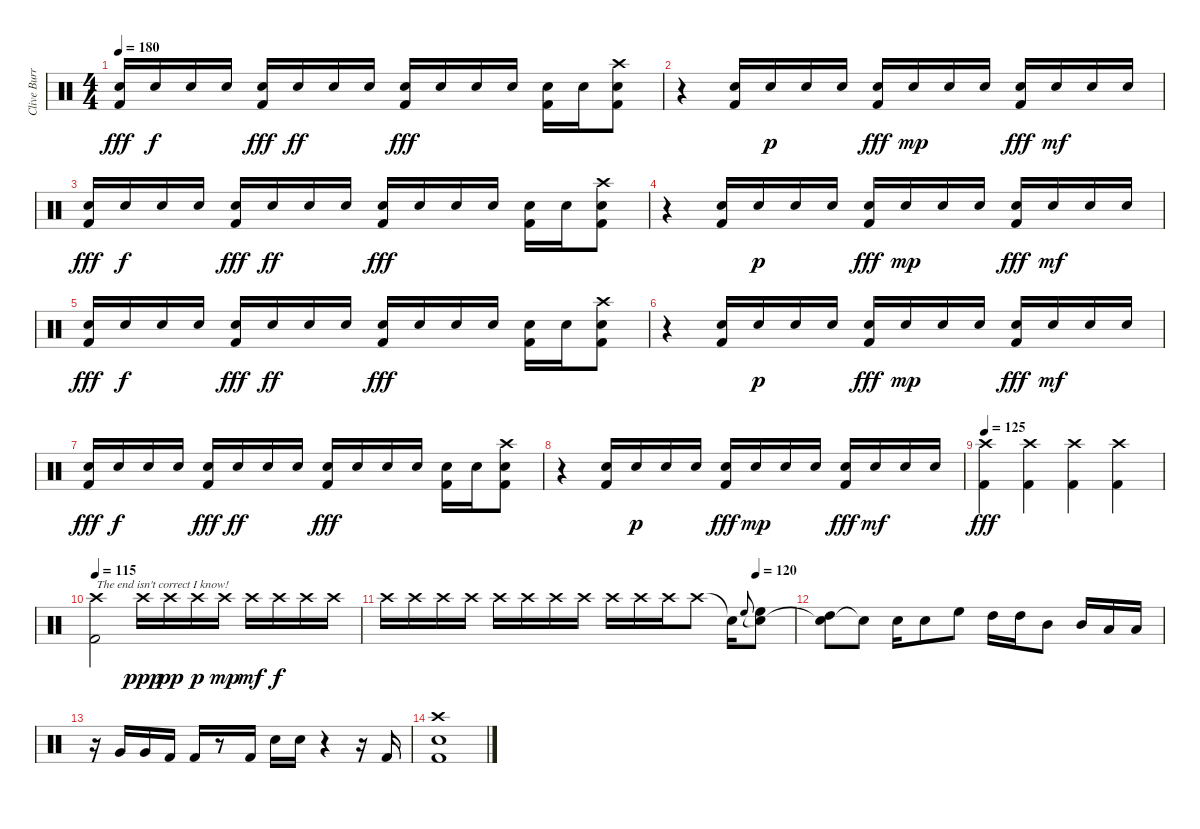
\track ("Clive Burr - Drums" "Clive Burr") {instrument percussion}
\staff {score}
\articulation defaults
\ts (4 4)
\tempo 180
\clef neutral
\ks c
("Snare (hit) 2" "Kick (hit) 2").16{dy fff} "Snare (hit) 2".16{dy f} "Snare (hit) 2".16 "Snare (hit) 2".16 ("Snare (hit) 2" "Kick (hit) 2").16{dy fff} "Snare (hit) 2".16{dy ff} "Snare (hit) 2".16 "Snare (hit) 2".16 ("Snare (hit) 2" "Kick (hit) 2").16{dy fff} "Snare (hit) 2".16 "Snare (hit) 2".16 "Snare (hit) 2".16 ("Snare (hit) 2" "Kick (hit) 2").16 "Snare (hit) 2".16 ("Crash high (hit)" "Snare (hit) 2" "Kick (hit) 2").8 |
r.4 ("Snare (hit) 2" "Kick (hit) 2").16 "Snare (hit) 2".16{dy p} "Snare (hit) 2".16 "Snare (hit) 2".16 ("Snare (hit) 2" "Kick (hit) 2").16{dy fff} "Snare (hit) 2".16{dy mp} "Snare (hit) 2".16 "Snare (hit) 2".16 ("Snare (hit) 2" "Kick (hit) 2").16{dy fff} "Snare (hit) 2".16{dy mf} "Snare (hit) 2".16 "Snare (hit) 2".16 |
("Snare (hit) 2" "Kick (hit) 2").16{dy fff} "Snare (hit) 2".16{dy f} "Snare (hit) 2".16 "Snare (hit) 2".16 ("Snare (hit) 2" "Kick (hit) 2").16{dy fff} "Snare (hit) 2".16{dy ff} "Snare (hit) 2".16 "Snare (hit) 2".16 ("Snare (hit) 2" "Kick (hit) 2").16{dy fff} "Snare (hit) 2".16 "Snare (hit) 2".16 "Snare (hit) 2".16 ("Snare (hit) 2" "Kick (hit) 2").16 "Snare (hit) 2".16 ("Crash high (hit)" "Snare (hit) 2" "Kick (hit) 2").8 |
r.4 ("Snare (hit) 2" "Kick (hit) 2").16 "Snare (hit) 2".16{dy p} "Snare (hit) 2".16 "Snare (hit) 2".16 ("Snare (hit) 2" "Kick (hit) 2").16{dy fff} "Snare (hit) 2".16{dy mp} "Snare (hit) 2".16 "Snare (hit) 2".16 ("Snare (hit) 2" "Kick (hit) 2").16{dy fff} "Snare (hit) 2".16{dy mf} "Snare (hit) 2".16 "Snare (hit) 2".16 |
("Snare (hit) 2" "Kick (hit) 2").16{dy fff} "Snare (hit) 2".16{dy f} "Snare (hit) 2".16 "Snare (hit) 2".16 ("Snare (hit) 2" "Kick (hit) 2").16{dy fff} "Snare (hit) 2".16{dy ff} "Snare (hit) 2".16 "Snare (hit) 2".16 ("Snare (hit) 2" "Kick (hit) 2").16{dy fff} "Snare (hit) 2".16 "Snare (hit) 2".16 "Snare (hit) 2".16 ("Snare (hit) 2" "Kick (hit) 2").16 "Snare (hit) 2".16 ("Crash high (hit)" "Snare (hit) 2" "Kick (hit) 2").8 |
r.4 ("Snare (hit) 2" "Kick (hit) 2").16 "Snare (hit) 2".16{dy p} "Snare (hit) 2".16 "Snare (hit) 2".16 ("Snare (hit) 2" "Kick (hit) 2").16{dy fff} "Snare (hit) 2".16{dy mp} "Snare (hit) 2".16 "Snare (hit) 2".16 ("Snare (hit) 2" "Kick (hit) 2").16{dy fff} "Snare (hit) 2".16{dy mf} "Snare (hit) 2".16 "Snare (hit) 2".16 |
("Snare (hit) 2" "Kick (hit) 2").16{dy fff} "Snare (hit) 2".16{dy f} "Snare (hit) 2".16 "Snare (hit) 2".16 ("Snare (hit) 2" "Kick (hit) 2").16{dy fff} "Snare (hit) 2".16{dy ff} "Snare (hit) 2".16 "Snare (hit) 2".16 ("Snare (hit) 2" "Kick (hit) 2").16{dy fff} "Snare (hit) 2".16 "Snare (hit) 2".16 "Snare (hit) 2".16 ("Snare (hit) 2" "Kick (hit) 2").16 "Snare (hit) 2".16 ("Crash high (hit)" "Snare (hit) 2" "Kick (hit) 2").8 |
r.4 ("Snare (hit) 2" "Kick (hit) 2").16 "Snare (hit) 2".16{dy p} "Snare (hit) 2".16 "Snare (hit) 2".16 ("Snare (hit) 2" "Kick (hit) 2").16{dy fff} "Snare (hit) 2".16{dy mp} "Snare (hit) 2".16 "Snare (hit) 2".16 ("Snare (hit) 2" "Kick (hit) 2").16{dy fff} "Snare (hit) 2".16{dy mf} "Snare (hit) 2".16 "Snare (hit) 2".16 |
\tempo 125
("Crash high (hit)" "Kick (hit) 2").4{dy fff} ("Crash high (hit)" "Kick (hit) 2").4 ("Crash high (hit)" "Kick (hit) 2").4 ("Crash high (hit)" "Kick (hit) 2").4 |
\tempo 115
("Crash high (hit)" "Kick (hit) 2").2{txt "The end isn't correct I know!"} "Crash high (hit)".16{dy ppp} "Crash high (hit)".16{dy pp} "Crash high (hit)".16{dy p} "Crash high (hit)".16{dy mp} "Crash high (hit)".16{dy mf} "Crash high (hit)".16{dy f} "Crash high (hit)".16 "Crash high (hit)".16 |
\tempo (120 0.90625)
"Crash high (hit)".16 "Crash high (hit)".16 "Crash high (hit)".16 "Crash high (hit)".16 "Crash high (hit)".16 "Crash high (hit)".16 "Crash high (hit)".16 "Crash high (hit)".16 "Crash high (hit)".16 "Crash high (hit)".16 "Crash high (hit)".16 "Crash high (hit)".8 "Snare (hit)"{t}.16 "High Floor Tom (hit)".8{gr onbeat} ("Snare (hit)"{t} "High Floor Tom (hit)").8 |
("Snare (hit)"{t} "High Tom (hit)").8 "Snare (hit)"{t}.8 "Snare (hit) 2".16 "Snare (hit) 2".8 "High Floor Tom (hit)".8 "High Tom (hit)".16 "High Tom (hit)".16 "Mid Tom (hit)".8 "Mid Tom (hit)".16 "Low Tom (hit)".16 "Low Tom (hit)".16 |
r.16 "Very Low Tom (hit)".16 "Very Low Tom (hit)".16 "Kick (hit) 2".16 "Kick (hit) 2".16 r.8 "Kick (hit) 2".16 "Snare (hit) 2".16 "Snare (hit) 2".16 r.4 r.16 "Kick (hit) 2".16 |
("Crash high (hit)" "Snare (hit) 2" "Kick (hit) 2").1
